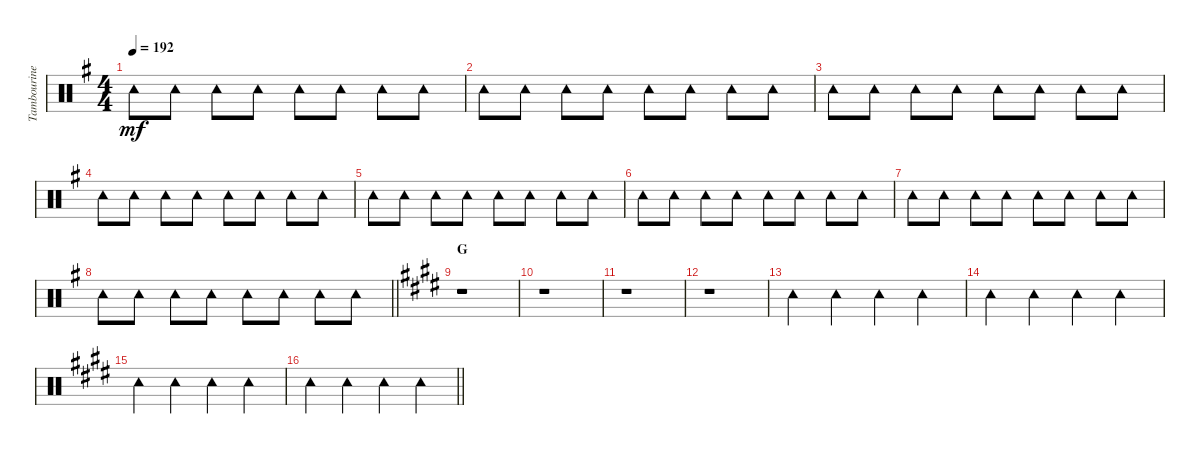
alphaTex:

\track ("Tambourine" "Tambourine") {instrument percussion}
\staff {score}
\articulation defaults
\ts (4 4)
\tempo 192
\clef neutral
\ks g "Tambourine (hit)".8{dy mf} "Tambourine (hit)".8 "Tambourine (hit)".8 "Tambourine (hit)".8 "Tambourine (hit)".8 "Tambourine (hit)".8 "Tambourine (hit)".8 "Tambourine (hit)".8
|
"Tambourine (hit)".8 "Tambourine (hit)".8 "Tambourine (hit)".8 "Tambourine (hit)".8 "Tambourine (hit)".8 "Tambourine (hit)".8 "Tambourine (hit)".8 "Tambourine (hit)".8 |
"Tambourine (hit)".8 "Tambourine (hit)".8 "Tambourine (hit)".8 "Tambourine (hit)".8 "Tambourine (hit)".8 "Tambourine (hit)".8 "Tambourine (hit)".8 "Tambourine (hit)".8 |
"Tambourine (hit)".8 "Tambourine (hit)".8 "Tambourine (hit)".8 "Tambourine (hit)".8 "Tambourine (hit)".8 "Tambourine (hit)".8 "Tambourine (hit)".8 "Tambourine (hit)".8 |
"Tambourine (hit)".8 "Tambourine (hit)".8 "Tambourine (hit)".8 "Tambourine (hit)".8 "Tambourine (hit)".8 "Tambourine (hit)".8 "Tambourine (hit)".8 "Tambourine (hit)".8 |
"Tambourine (hit)".8 "Tambourine (hit)".8 "Tambourine (hit)".8 "Tambourine (hit)".8 "Tambourine (hit)".8 "Tambourine (hit)".8 "Tambourine (hit)".8 "Tambourine (hit)".8 |
"Tambourine (hit)".8 "Tambourine (hit)".8 "Tambourine (hit)".8 "Tambourine (hit)".8 "Tambourine (hit)".8 "Tambourine (hit)".8 "Tambourine (hit)".8 "Tambourine (hit)".8 |
\barLineRight lightlight "Tambourine (hit)".8 "Tambourine (hit)".8 "Tambourine (hit)".8 "Tambourine (hit)".8 "Tambourine (hit)".8 "Tambourine (hit)".8 "Tambourine (hit)".8 "Tambourine (hit)".8
|
\section ("" "G")
\ks e
r.1 |
r.1 |
r.1 |
r.1 |
"Tambourine (hit)".4 "Tambourine (hit)".4 "Tambourine (hit)".4 "Tambourine (hit)".4 |
"Tambourine (hit)".4 "Tambourine (hit)".4 "Tambourine (hit)".4 "Tambourine (hit)".4 |
"Tambourine (hit)".4 "Tambourine (hit)".4 "Tambourine (hit)".4 "Tambourine (hit)".4 |
\barLineRight lightlight "Tambourine (hit)".4 "Tambourine (hit)".4 "Tambourine (hit)".4 "Tambourine (hit)".4
